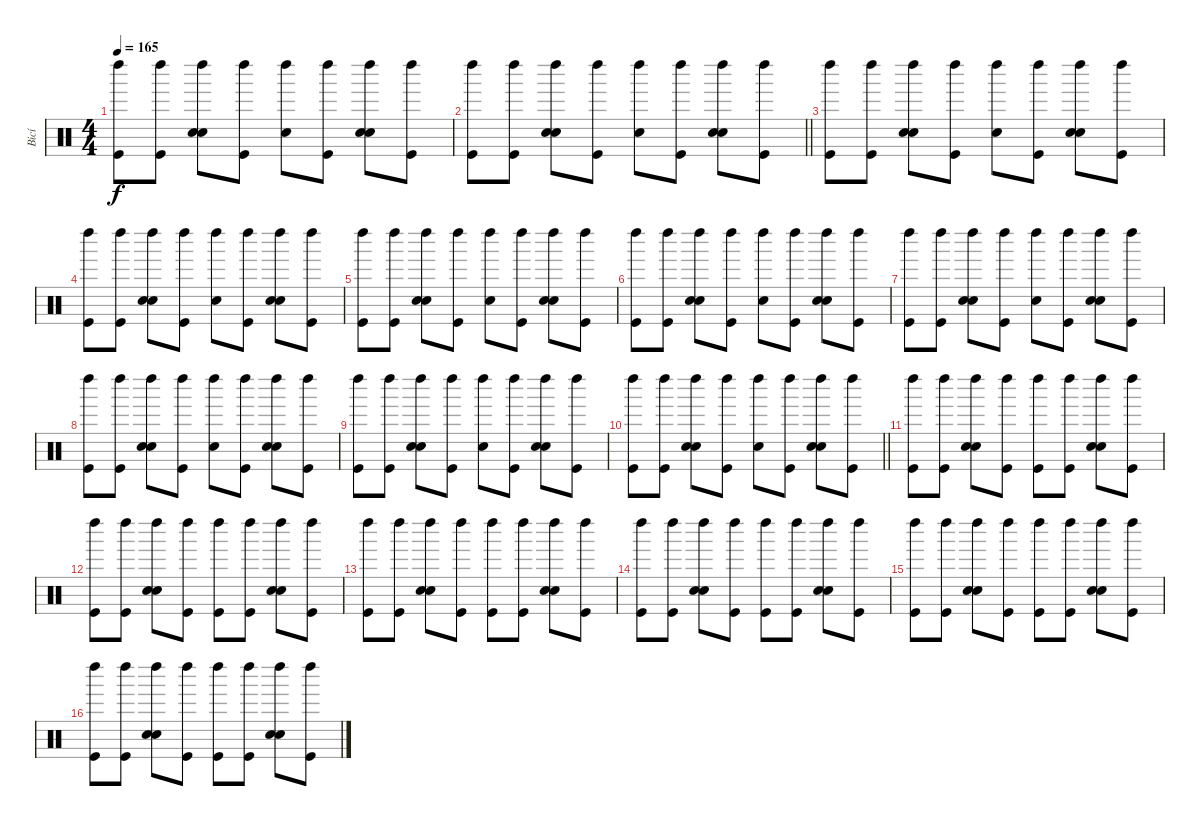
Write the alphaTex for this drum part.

\track ("Bicí" "Bicí") {instrument percussion}
\staff {score}
\articulation defaults
\ts (4 4)
\tempo 165
\clef neutral
\ks c
("Left Maraca (hit)" "Kick (hit)").8{dy f} ("Left Maraca (hit)" "Kick (hit)").8 ("Left Maraca (hit)" "Hand Clap (hit)" "Electric Snare (hit)").8 ("Left Maraca (hit)" "Kick (hit)").8 ("Left Maraca (hit)" "Snare (hit)").8 ("Left Maraca (hit)" "Kick (hit)").8 ("Left Maraca (hit)" "Hand Clap (hit)" "Electric Snare (hit)").8 ("Left Maraca (hit)" "Kick (hit)").8 |
\barLineRight lightlight
("Left Maraca (hit)" "Kick (hit)").8 ("Left Maraca (hit)" "Kick (hit)").8 ("Left Maraca (hit)" "Hand Clap (hit)" "Electric Snare (hit)").8 ("Left Maraca (hit)" "Kick (hit)").8 ("Left Maraca (hit)" "Snare (hit)").8 ("Left Maraca (hit)" "Kick (hit)").8 ("Left Maraca (hit)" "Hand Clap (hit)" "Electric Snare (hit)").8 ("Left Maraca (hit)" "Kick (hit)").8 |
\section ("" "")
("Left Maraca (hit)" "Kick (hit)").8 ("Left Maraca (hit)" "Kick (hit)").8 ("Left Maraca (hit)" "Hand Clap (hit)" "Electric Snare (hit)").8 ("Left Maraca (hit)" "Kick (hit)").8 ("Left Maraca (hit)" "Snare (hit)").8 ("Left Maraca (hit)" "Kick (hit)").8 ("Left Maraca (hit)" "Hand Clap (hit)" "Electric Snare (hit)").8 ("Left Maraca (hit)" "Kick (hit)").8 |
("Left Maraca (hit)" "Kick (hit)").8 ("Left Maraca (hit)" "Kick (hit)").8 ("Left Maraca (hit)" "Hand Clap (hit)" "Electric Snare (hit)").8 ("Left Maraca (hit)" "Kick (hit)").8 ("Left Maraca (hit)" "Snare (hit)").8 ("Left Maraca (hit)" "Kick (hit)").8 ("Left Maraca (hit)" "Hand Clap (hit)" "Electric Snare (hit)").8 ("Left Maraca (hit)" "Kick (hit)").8 |
("Left Maraca (hit)" "Kick (hit)").8 ("Left Maraca (hit)" "Kick (hit)").8 ("Left Maraca (hit)" "Hand Clap (hit)" "Electric Snare (hit)").8 ("Left Maraca (hit)" "Kick (hit)").8 ("Left Maraca (hit)" "Snare (hit)").8 ("Left Maraca (hit)" "Kick (hit)").8 ("Left Maraca (hit)" "Hand Clap (hit)" "Electric Snare (hit)").8 ("Left Maraca (hit)" "Kick (hit)").8 |
("Left Maraca (hit)" "Kick (hit)").8 ("Left Maraca (hit)" "Kick (hit)").8 ("Left Maraca (hit)" "Hand Clap (hit)" "Electric Snare (hit)").8 ("Left Maraca (hit)" "Kick (hit)").8 ("Left Maraca (hit)" "Snare (hit)").8 ("Left Maraca (hit)" "Kick (hit)").8 ("Left Maraca (hit)" "Hand Clap (hit)" "Electric Snare (hit)").8 ("Left Maraca (hit)" "Kick (hit)").8 |
("Left Maraca (hit)" "Kick (hit)").8 ("Left Maraca (hit)" "Kick (hit)").8 ("Left Maraca (hit)" "Hand Clap (hit)" "Electric Snare (hit)").8 ("Left Maraca (hit)" "Kick (hit)").8 ("Left Maraca (hit)" "Snare (hit)").8 ("Left Maraca (hit)" "Kick (hit)").8 ("Left Maraca (hit)" "Hand Clap (hit)" "Electric Snare (hit)").8 ("Left Maraca (hit)" "Kick (hit)").8 |
("Left Maraca (hit)" "Kick (hit)").8 ("Left Maraca (hit)" "Kick (hit)").8 ("Left Maraca (hit)" "Hand Clap (hit)" "Electric Snare (hit)").8 ("Left Maraca (hit)" "Kick (hit)").8 ("Left Maraca (hit)" "Snare (hit)").8 ("Left Maraca (hit)" "Kick (hit)").8 ("Left Maraca (hit)" "Hand Clap (hit)" "Electric Snare (hit)").8 ("Left Maraca (hit)" "Kick (hit)").8 |
("Left Maraca (hit)" "Kick (hit)").8 ("Left Maraca (hit)" "Kick (hit)").8 ("Left Maraca (hit)" "Hand Clap (hit)" "Electric Snare (hit)").8 ("Left Maraca (hit)" "Kick (hit)").8 ("Left Maraca (hit)" "Snare (hit)").8 ("Left Maraca (hit)" "Kick (hit)").8 ("Left Maraca (hit)" "Hand Clap (hit)" "Electric Snare (hit)").8 ("Left Maraca (hit)" "Kick (hit)").8 |
\barLineRight lightlight
("Left Maraca (hit)" "Kick (hit)").8 ("Left Maraca (hit)" "Kick (hit)").8 ("Left Maraca (hit)" "Hand Clap (hit)" "Electric Snare (hit)").8 ("Left Maraca (hit)" "Kick (hit)").8 ("Left Maraca (hit)" "Snare (hit)").8 ("Left Maraca (hit)" "Kick (hit)").8 ("Left Maraca (hit)" "Hand Clap (hit)" "Electric Snare (hit)").8 ("Left Maraca (hit)" "Kick (hit)").8 |
\section ("" "")
("Left Maraca (hit)" "Kick (hit)").8 ("Left Maraca (hit)" "Kick (hit)").8 ("Left Maraca (hit)" "Hand Clap (hit)" "Electric Snare (hit)").8 ("Left Maraca (hit)" "Kick (hit)").8 ("Left Maraca (hit)" "Kick (hit)").8 ("Left Maraca (hit)" "Kick (hit)").8 ("Left Maraca (hit)" "Hand Clap (hit)" "Electric Snare (hit)").8 ("Left Maraca (hit)" "Kick (hit)").8 |
("Left Maraca (hit)" "Kick (hit)").8 ("Left Maraca (hit)" "Kick (hit)").8 ("Left Maraca (hit)" "Hand Clap (hit)" "Electric Snare (hit)").8 ("Left Maraca (hit)" "Kick (hit)").8 ("Left Maraca (hit)" "Kick (hit)").8 ("Left Maraca (hit)" "Kick (hit)").8 ("Left Maraca (hit)" "Hand Clap (hit)" "Electric Snare (hit)").8 ("Left Maraca (hit)" "Kick (hit)").8 |
("Left Maraca (hit)" "Kick (hit)").8 ("Left Maraca (hit)" "Kick (hit)").8 ("Left Maraca (hit)" "Hand Clap (hit)" "Electric Snare (hit)").8 ("Left Maraca (hit)" "Kick (hit)").8 ("Left Maraca (hit)" "Kick (hit)").8 ("Left Maraca (hit)" "Kick (hit)").8 ("Left Maraca (hit)" "Hand Clap (hit)" "Electric Snare (hit)").8 ("Left Maraca (hit)" "Kick (hit)").8 |
("Left Maraca (hit)" "Kick (hit)").8 ("Left Maraca (hit)" "Kick (hit)").8 ("Left Maraca (hit)" "Hand Clap (hit)" "Electric Snare (hit)").8 ("Left Maraca (hit)" "Kick (hit)").8 ("Left Maraca (hit)" "Kick (hit)").8 ("Left Maraca (hit)" "Kick (hit)").8 ("Left Maraca (hit)" "Hand Clap (hit)" "Electric Snare (hit)").8 ("Left Maraca (hit)" "Kick (hit)").8 |
("Left Maraca (hit)" "Kick (hit)").8 ("Left Maraca (hit)" "Kick (hit)").8 ("Left Maraca (hit)" "Hand Clap (hit)" "Electric Snare (hit)").8 ("Left Maraca (hit)" "Kick (hit)").8 ("Left Maraca (hit)" "Kick (hit)").8 ("Left Maraca (hit)" "Kick (hit)").8 ("Left Maraca (hit)" "Hand Clap (hit)" "Electric Snare (hit)").8 ("Left Maraca (hit)" "Kick (hit)").8 |
("Left Maraca (hit)" "Kick (hit)").8 ("Left Maraca (hit)" "Kick (hit)").8 ("Left Maraca (hit)" "Hand Clap (hit)" "Electric Snare (hit)").8 ("Left Maraca (hit)" "Kick (hit)").8 ("Left Maraca (hit)" "Kick (hit)").8 ("Left Maraca (hit)" "Kick (hit)").8 ("Left Maraca (hit)" "Hand Clap (hit)" "Electric Snare (hit)").8 ("Left Maraca (hit)" "Kick (hit)").8
